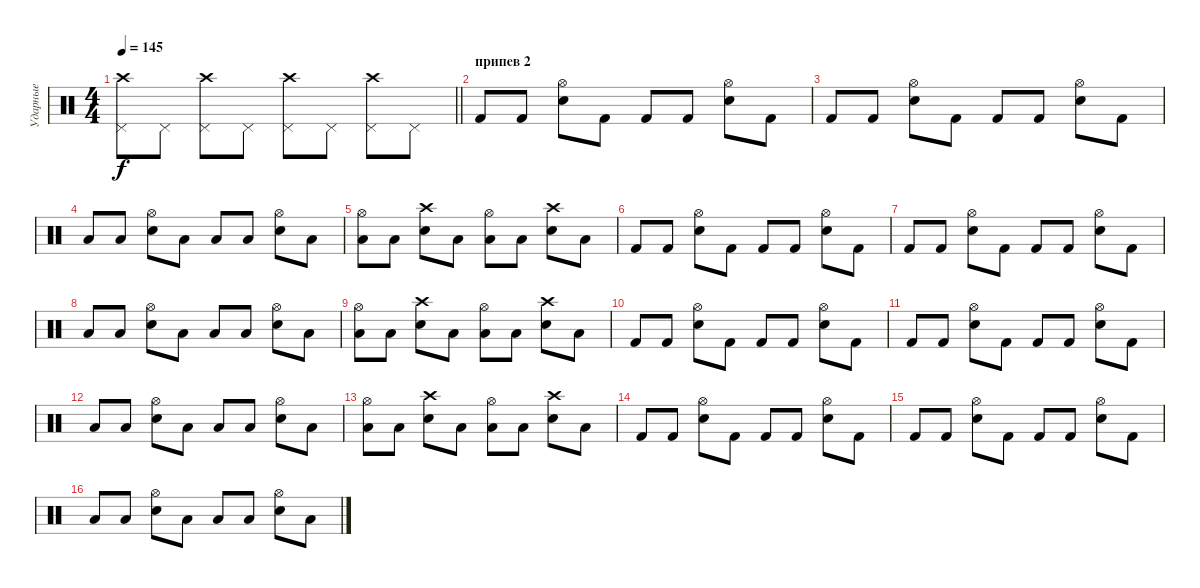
\track ("Ударные" "Ударные") {instrument percussion}
\staff {score}
\articulation defaults
\ts (4 4)
\tempo 145
\clef neutral
\barLineRight lightlight
\ks c
("Crash high (hit)" "Pedal Hi-Hat (hit)").8{dy f} "Pedal Hi-Hat (hit)".8 ("Crash high (hit)" "Pedal Hi-Hat (hit)").8 "Pedal Hi-Hat (hit)".8 ("Crash high (hit)" "Pedal Hi-Hat (hit)").8 "Pedal Hi-Hat (hit)".8 ("Crash high (hit)" "Pedal Hi-Hat (hit)").8 "Pedal Hi-Hat (hit)".8 |
\section ("" "припев 2")
"Kick (hit) 2".8 "Kick (hit) 2".8 ("Hi-Hat (open)" "Electric Snare (hit)").8 "Kick (hit) 2".8 "Kick (hit) 2".8 "Kick (hit) 2".8 ("Hi-Hat (open)" "Electric Snare (hit)").8 "Kick (hit) 2".8 |
"Kick (hit) 2".8 "Kick (hit) 2".8 ("Hi-Hat (open)" "Electric Snare (hit)").8 "Kick (hit) 2".8 "Kick (hit) 2".8 "Kick (hit) 2".8 ("Hi-Hat (open)" "Electric Snare (hit)").8 "Kick (hit) 2".8 |
"Low Tom (hit)".8 "Low Tom (hit)".8 ("Hi-Hat (open)" "Electric Snare (hit)").8 "Low Tom (hit)".8 "Low Tom (hit)".8 "Low Tom (hit)".8 ("Hi-Hat (open)" "Electric Snare (hit)").8 "Low Tom (hit)".8 |
("Hi-Hat (open)" "Low Tom (hit)").8 "Low Tom (hit)".8 ("Crash high (hit)" "Electric Snare (hit)").8 "Low Tom (hit)".8 ("Hi-Hat (open)" "Low Tom (hit)").8 "Low Tom (hit)".8 ("Crash high (hit)" "Electric Snare (hit)").8 "Low Tom (hit)".8 |
"Kick (hit) 2".8 "Kick (hit) 2".8 ("Hi-Hat (open)" "Electric Snare (hit)").8 "Kick (hit) 2".8 "Kick (hit) 2".8 "Kick (hit) 2".8 ("Hi-Hat (open)" "Electric Snare (hit)").8 "Kick (hit) 2".8 |
"Kick (hit) 2".8 "Kick (hit) 2".8 ("Hi-Hat (open)" "Electric Snare (hit)").8 "Kick (hit) 2".8 "Kick (hit) 2".8 "Kick (hit) 2".8 ("Hi-Hat (open)" "Electric Snare (hit)").8 "Kick (hit) 2".8 |
"Low Tom (hit)".8 "Low Tom (hit)".8 ("Hi-Hat (open)" "Electric Snare (hit)").8 "Low Tom (hit)".8 "Low Tom (hit)".8 "Low Tom (hit)".8 ("Hi-Hat (open)" "Electric Snare (hit)").8 "Low Tom (hit)".8 |
("Hi-Hat (open)" "Low Tom (hit)").8 "Low Tom (hit)".8 ("Crash high (hit)" "Electric Snare (hit)").8 "Low Tom (hit)".8 ("Hi-Hat (open)" "Low Tom (hit)").8 "Low Tom (hit)".8 ("Crash high (hit)" "Electric Snare (hit)").8 "Low Tom (hit)".8 |
"Kick (hit) 2".8 "Kick (hit) 2".8 ("Hi-Hat (open)" "Electric Snare (hit)").8 "Kick (hit) 2".8 "Kick (hit) 2".8 "Kick (hit) 2".8 ("Hi-Hat (open)" "Electric Snare (hit)").8 "Kick (hit) 2".8 |
"Kick (hit) 2".8 "Kick (hit) 2".8 ("Hi-Hat (open)" "Electric Snare (hit)").8 "Kick (hit) 2".8 "Kick (hit) 2".8 "Kick (hit) 2".8 ("Hi-Hat (open)" "Electric Snare (hit)").8 "Kick (hit) 2".8 |
"Low Tom (hit)".8 "Low Tom (hit)".8 ("Hi-Hat (open)" "Electric Snare (hit)").8 "Low Tom (hit)".8 "Low Tom (hit)".8 "Low Tom (hit)".8 ("Hi-Hat (open)" "Electric Snare (hit)").8 "Low Tom (hit)".8 |
("Hi-Hat (open)" "Low Tom (hit)").8 "Low Tom (hit)".8 ("Crash high (hit)" "Electric Snare (hit)").8 "Low Tom (hit)".8 ("Hi-Hat (open)" "Low Tom (hit)").8 "Low Tom (hit)".8 ("Crash high (hit)" "Electric Snare (hit)").8 "Low Tom (hit)".8 |
"Kick (hit) 2".8 "Kick (hit) 2".8 ("Hi-Hat (open)" "Electric Snare (hit)").8 "Kick (hit) 2".8 "Kick (hit) 2".8 "Kick (hit) 2".8 ("Hi-Hat (open)" "Electric Snare (hit)").8 "Kick (hit) 2".8 |
"Kick (hit) 2".8 "Kick (hit) 2".8 ("Hi-Hat (open)" "Electric Snare (hit)").8 "Kick (hit) 2".8 "Kick (hit) 2".8 "Kick (hit) 2".8 ("Hi-Hat (open)" "Electric Snare (hit)").8 "Kick (hit) 2".8 |
"Low Tom (hit)".8 "Low Tom (hit)".8 ("Hi-Hat (open)" "Electric Snare (hit)").8 "Low Tom (hit)".8 "Low Tom (hit)".8 "Low Tom (hit)".8 ("Hi-Hat (open)" "Electric Snare (hit)").8 "Low Tom (hit)".8
